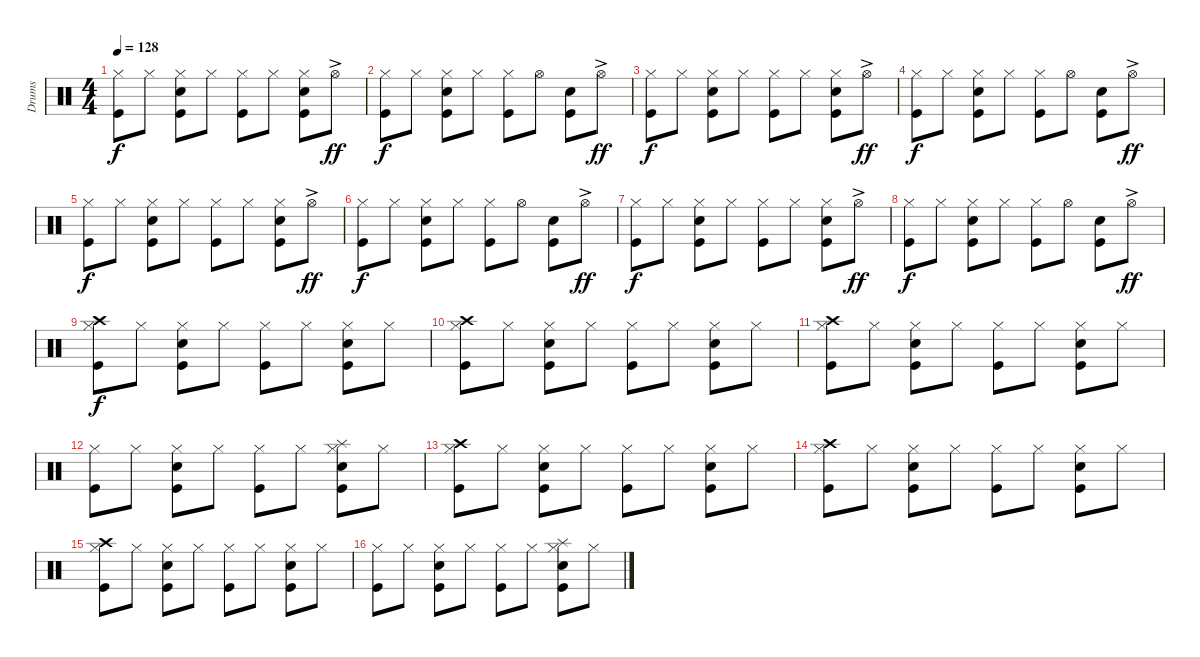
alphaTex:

\track ("Drums" "Drums") {instrument percussion}
\staff {score}
\articulation defaults
\ts (4 4)
\tempo 128
\clef neutral
\ks c
("Hi-Hat (closed)" "Kick (hit)").8{dy f} "Hi-Hat (closed)".8 ("Hi-Hat (closed)" "Electric Snare (hit)" "Kick (hit)").8 "Hi-Hat (closed)".8 ("Hi-Hat (closed)" "Kick (hit)").8 "Hi-Hat (closed)".8 ("Hi-Hat (closed)" "Electric Snare (hit)" "Kick (hit)").8 "Hi-Hat (open)"{ac}.8{dy ff} |
("Hi-Hat (closed)" "Kick (hit)").8{dy f} "Hi-Hat (closed)".8 ("Hi-Hat (closed)" "Electric Snare (hit)" "Kick (hit)").8 "Hi-Hat (closed)".8 ("Hi-Hat (closed)" "Kick (hit)").8 "Hi-Hat (open)".8 ("Electric Snare (hit)" "Kick (hit)").8 "Hi-Hat (open)"{ac}.8{dy ff} |
("Hi-Hat (closed)" "Kick (hit)").8{dy f} "Hi-Hat (closed)".8 ("Hi-Hat (closed)" "Electric Snare (hit)" "Kick (hit)").8 "Hi-Hat (closed)".8 ("Hi-Hat (closed)" "Kick (hit)").8 "Hi-Hat (closed)".8 ("Hi-Hat (closed)" "Electric Snare (hit)" "Kick (hit)").8 "Hi-Hat (open)"{ac}.8{dy ff} |
("Hi-Hat (closed)" "Kick (hit)").8{dy f} "Hi-Hat (closed)".8 ("Hi-Hat (closed)" "Electric Snare (hit)" "Kick (hit)").8 "Hi-Hat (closed)".8 ("Hi-Hat (closed)" "Kick (hit)").8 "Hi-Hat (open)".8 ("Electric Snare (hit)" "Kick (hit)").8 "Hi-Hat (open)"{ac}.8{dy ff} |
("Hi-Hat (closed)" "Kick (hit)").8{dy f} "Hi-Hat (closed)".8 ("Hi-Hat (closed)" "Electric Snare (hit)" "Kick (hit)").8 "Hi-Hat (closed)".8 ("Hi-Hat (closed)" "Kick (hit)").8 "Hi-Hat (closed)".8 ("Hi-Hat (closed)" "Electric Snare (hit)" "Kick (hit)").8 "Hi-Hat (open)"{ac}.8{dy ff} |
("Hi-Hat (closed)" "Kick (hit)").8{dy f} "Hi-Hat (closed)".8 ("Hi-Hat (closed)" "Electric Snare (hit)" "Kick (hit)").8 "Hi-Hat (closed)".8 ("Hi-Hat (closed)" "Kick (hit)").8 "Hi-Hat (open)".8 ("Electric Snare (hit)" "Kick (hit)").8 "Hi-Hat (open)"{ac}.8{dy ff} |
("Hi-Hat (closed)" "Kick (hit)").8{dy f} "Hi-Hat (closed)".8 ("Hi-Hat (closed)" "Electric Snare (hit)" "Kick (hit)").8 "Hi-Hat (closed)".8 ("Hi-Hat (closed)" "Kick (hit)").8 "Hi-Hat (closed)".8 ("Hi-Hat (closed)" "Electric Snare (hit)" "Kick (hit)").8 "Hi-Hat (open)"{ac}.8{dy ff} |
("Hi-Hat (closed)" "Kick (hit)").8{dy f} "Hi-Hat (closed)".8 ("Hi-Hat (closed)" "Electric Snare (hit)" "Kick (hit)").8 "Hi-Hat (closed)".8 ("Hi-Hat (closed)" "Kick (hit)").8 "Hi-Hat (open)".8 ("Electric Snare (hit)" "Kick (hit)").8 "Hi-Hat (open)"{ac}.8{dy ff} |
("Crash high (hit)" "Hi-Hat (closed)" "Kick (hit)").8{dy f} "Hi-Hat (closed)".8 ("Hi-Hat (closed)" "Electric Snare (hit)" "Kick (hit)").8 "Hi-Hat (closed)".8 ("Hi-Hat (closed)" "Kick (hit)").8 "Hi-Hat (closed)".8 ("Hi-Hat (closed)" "Electric Snare (hit)" "Kick (hit)").8 "Hi-Hat (closed)".8 |
("Crash high (hit)" "Hi-Hat (closed)" "Kick (hit)").8 "Hi-Hat (closed)".8 ("Hi-Hat (closed)" "Electric Snare (hit)" "Kick (hit)").8 "Hi-Hat (closed)".8 ("Hi-Hat (closed)" "Kick (hit)").8 "Hi-Hat (closed)".8 ("Hi-Hat (closed)" "Electric Snare (hit)" "Kick (hit)").8 "Hi-Hat (closed)".8 |
("Crash high (hit)" "Hi-Hat (closed)" "Kick (hit)").8 "Hi-Hat (closed)".8 ("Hi-Hat (closed)" "Electric Snare (hit)" "Kick (hit)").8 "Hi-Hat (closed)".8 ("Hi-Hat (closed)" "Kick (hit)").8 "Hi-Hat (closed)".8 ("Hi-Hat (closed)" "Electric Snare (hit)" "Kick (hit)").8 "Hi-Hat (closed)".8 |
("Hi-Hat (closed)" "Kick (hit)").8 "Hi-Hat (closed)".8 ("Hi-Hat (closed)" "Electric Snare (hit)" "Kick (hit)").8 "Hi-Hat (closed)".8 ("Hi-Hat (closed)" "Kick (hit)").8 "Hi-Hat (closed)".8 ("Splash (hit)" "Hi-Hat (closed)" "Electric Snare (hit)" "Kick (hit)").8 "Hi-Hat (closed)".8 |
("Crash high (hit)" "Hi-Hat (closed)" "Kick (hit)").8 "Hi-Hat (closed)".8 ("Hi-Hat (closed)" "Electric Snare (hit)" "Kick (hit)").8 "Hi-Hat (closed)".8 ("Hi-Hat (closed)" "Kick (hit)").8 "Hi-Hat (closed)".8 ("Hi-Hat (closed)" "Electric Snare (hit)" "Kick (hit)").8 "Hi-Hat (closed)".8 |
("Crash high (hit)" "Hi-Hat (closed)" "Kick (hit)").8 "Hi-Hat (closed)".8 ("Hi-Hat (closed)" "Electric Snare (hit)" "Kick (hit)").8 "Hi-Hat (closed)".8 ("Hi-Hat (closed)" "Kick (hit)").8 "Hi-Hat (closed)".8 ("Hi-Hat (closed)" "Electric Snare (hit)" "Kick (hit)").8 "Hi-Hat (closed)".8 |
("Crash high (hit)" "Hi-Hat (closed)" "Kick (hit)").8 "Hi-Hat (closed)".8 ("Hi-Hat (closed)" "Electric Snare (hit)" "Kick (hit)").8 "Hi-Hat (closed)".8 ("Hi-Hat (closed)" "Kick (hit)").8 "Hi-Hat (closed)".8 ("Hi-Hat (closed)" "Electric Snare (hit)" "Kick (hit)").8 "Hi-Hat (closed)".8 |
("Hi-Hat (closed)" "Kick (hit)").8 "Hi-Hat (closed)".8 ("Hi-Hat (closed)" "Electric Snare (hit)" "Kick (hit)").8 "Hi-Hat (closed)".8 ("Hi-Hat (closed)" "Kick (hit)").8 "Hi-Hat (closed)".8 ("Splash (hit)" "Hi-Hat (closed)" "Electric Snare (hit)" "Kick (hit)").8 "Hi-Hat (closed)".8
